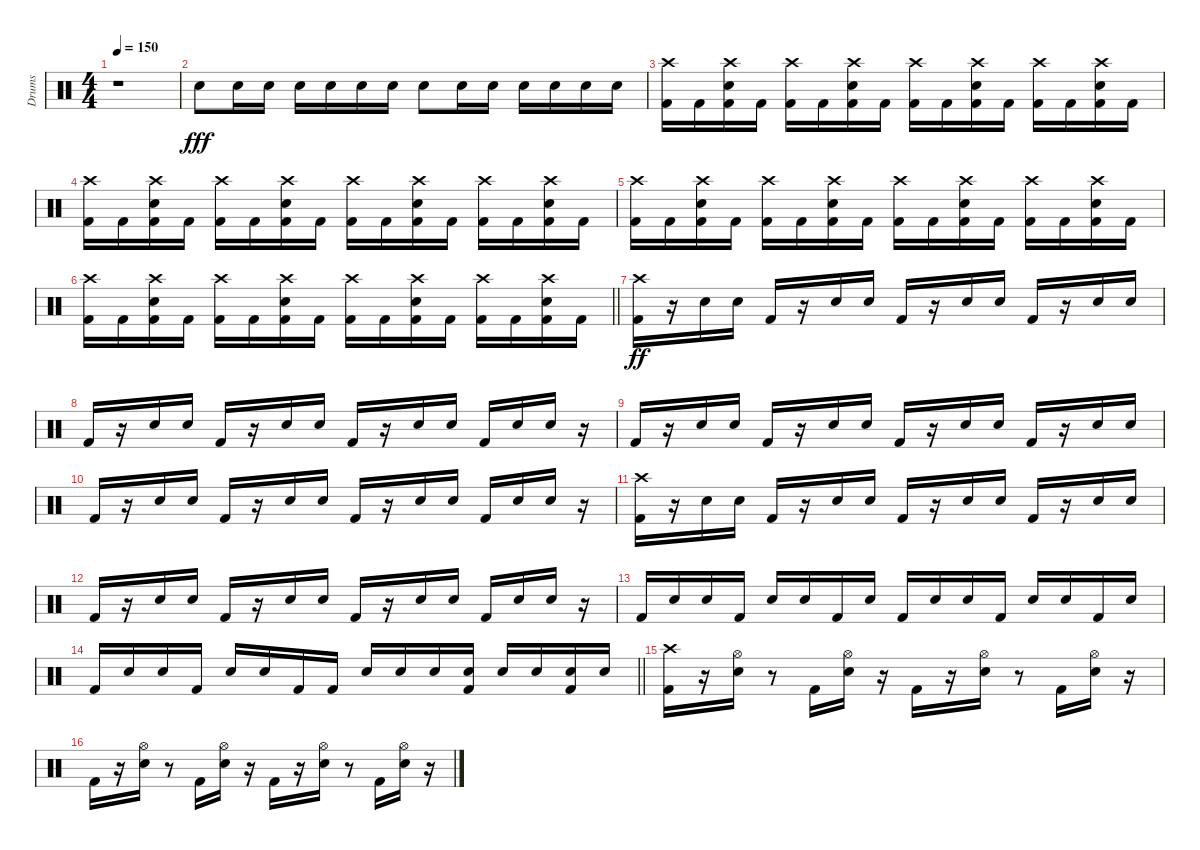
\track ("Drums" "Drums") {instrument percussion}
\staff {score}
\articulation defaults
\ts (4 4)
\tempo 150
\clef neutral
\ks c
r.1{dy fff} |
"Electric Snare (hit)".8 "Electric Snare (hit)".16 "Electric Snare (hit)".16 "Electric Snare (hit)".16 "Electric Snare (hit)".16 "Electric Snare (hit)".16 "Electric Snare (hit)".16 "Electric Snare (hit)".8 "Electric Snare (hit)".16 "Electric Snare (hit)".16 "Electric Snare (hit)".16 "Electric Snare (hit)".16 "Electric Snare (hit)".16 "Electric Snare (hit)".16 |
("Crash high (hit)" "Kick (hit) 2").16 "Kick (hit) 2".16 ("Crash high (hit)" "Electric Snare (hit)" "Kick (hit) 2").16 "Kick (hit) 2".16 ("Crash high (hit)" "Kick (hit) 2").16 "Kick (hit) 2".16 ("Crash high (hit)" "Electric Snare (hit)" "Kick (hit) 2").16 "Kick (hit) 2".16 ("Crash high (hit)" "Kick (hit) 2").16 "Kick (hit) 2".16 ("Crash high (hit)" "Electric Snare (hit)" "Kick (hit) 2").16 "Kick (hit) 2".16 ("Crash high (hit)" "Kick (hit) 2").16 "Kick (hit) 2".16 ("Crash high (hit)" "Electric Snare (hit)" "Kick (hit) 2").16 "Kick (hit) 2".16 |
("Crash high (hit)" "Kick (hit) 2").16 "Kick (hit) 2".16 ("Crash high (hit)" "Electric Snare (hit)" "Kick (hit) 2").16 "Kick (hit) 2".16 ("Crash high (hit)" "Kick (hit) 2").16 "Kick (hit) 2".16 ("Crash high (hit)" "Electric Snare (hit)" "Kick (hit) 2").16 "Kick (hit) 2".16 ("Crash high (hit)" "Kick (hit) 2").16 "Kick (hit) 2".16 ("Crash high (hit)" "Electric Snare (hit)" "Kick (hit) 2").16 "Kick (hit) 2".16 ("Crash high (hit)" "Kick (hit) 2").16 "Kick (hit) 2".16 ("Crash high (hit)" "Electric Snare (hit)" "Kick (hit) 2").16 "Kick (hit) 2".16 |
("Crash high (hit)" "Kick (hit) 2").16 "Kick (hit) 2".16 ("Crash high (hit)" "Electric Snare (hit)" "Kick (hit) 2").16 "Kick (hit) 2".16 ("Crash high (hit)" "Kick (hit) 2").16 "Kick (hit) 2".16 ("Crash high (hit)" "Electric Snare (hit)" "Kick (hit) 2").16 "Kick (hit) 2".16 ("Crash high (hit)" "Kick (hit) 2").16 "Kick (hit) 2".16 ("Crash high (hit)" "Electric Snare (hit)" "Kick (hit) 2").16 "Kick (hit) 2".16 ("Crash high (hit)" "Kick (hit) 2").16 "Kick (hit) 2".16 ("Crash high (hit)" "Electric Snare (hit)" "Kick (hit) 2").16 "Kick (hit) 2".16 |
\barLineRight lightlight
("Crash high (hit)" "Kick (hit) 2").16 "Kick (hit) 2".16 ("Crash high (hit)" "Electric Snare (hit)" "Kick (hit) 2").16 "Kick (hit) 2".16 ("Crash high (hit)" "Kick (hit) 2").16 "Kick (hit) 2".16 ("Crash high (hit)" "Electric Snare (hit)" "Kick (hit) 2").16 "Kick (hit) 2".16 ("Crash high (hit)" "Kick (hit) 2").16 "Kick (hit) 2".16 ("Crash high (hit)" "Electric Snare (hit)" "Kick (hit) 2").16 "Kick (hit) 2".16 ("Crash high (hit)" "Kick (hit) 2").16 "Kick (hit) 2".16 ("Crash high (hit)" "Electric Snare (hit)" "Kick (hit) 2").16 "Kick (hit) 2".16 |
("Crash high (hit)" "Kick (hit) 2").16{dy ff} r.16 "Snare (hit) 2".16 "Snare (hit) 2".16 "Kick (hit) 2".16 r.16 "Snare (hit) 2".16 "Snare (hit) 2".16 "Kick (hit) 2".16 r.16 "Snare (hit) 2".16 "Snare (hit) 2".16 "Kick (hit) 2".16 r.16 "Snare (hit) 2".16 "Snare (hit) 2".16 |
"Kick (hit) 2".16 r.16 "Snare (hit) 2".16 "Snare (hit) 2".16 "Kick (hit) 2".16 r.16 "Snare (hit) 2".16 "Snare (hit) 2".16 "Kick (hit) 2".16 r.16 "Snare (hit) 2".16 "Snare (hit) 2".16 "Kick (hit) 2".16 "Snare (hit) 2".16 "Snare (hit) 2".16 r.16 |
"Kick (hit) 2".16 r.16 "Snare (hit) 2".16 "Snare (hit) 2".16 "Kick (hit) 2".16 r.16 "Snare (hit) 2".16 "Snare (hit) 2".16 "Kick (hit) 2".16 r.16 "Snare (hit) 2".16 "Snare (hit) 2".16 "Kick (hit) 2".16 r.16 "Snare (hit) 2".16 "Snare (hit) 2".16 |
"Kick (hit) 2".16 r.16 "Snare (hit) 2".16 "Snare (hit) 2".16 "Kick (hit) 2".16 r.16 "Snare (hit) 2".16 "Snare (hit) 2".16 "Kick (hit) 2".16 r.16 "Snare (hit) 2".16 "Snare (hit) 2".16 "Kick (hit) 2".16 "Snare (hit) 2".16 "Snare (hit) 2".16 r.16 |
("Crash high (hit)" "Kick (hit) 2").16 r.16 "Snare (hit) 2".16 "Snare (hit) 2".16 "Kick (hit) 2".16 r.16 "Snare (hit) 2".16 "Snare (hit) 2".16 "Kick (hit) 2".16 r.16 "Snare (hit) 2".16 "Snare (hit) 2".16 "Kick (hit) 2".16 r.16 "Snare (hit) 2".16 "Snare (hit) 2".16 |
"Kick (hit) 2".16 r.16 "Snare (hit) 2".16 "Snare (hit) 2".16 "Kick (hit) 2".16 r.16 "Snare (hit) 2".16 "Snare (hit) 2".16 "Kick (hit) 2".16 r.16 "Snare (hit) 2".16 "Snare (hit) 2".16 "Kick (hit) 2".16 "Snare (hit) 2".16 "Snare (hit) 2".16 r.16 |
"Kick (hit) 2".16 "Snare (hit) 2".16 "Snare (hit) 2".16 "Kick (hit) 2".16 "Snare (hit) 2".16 "Snare (hit) 2".16 "Kick (hit) 2".16 "Snare (hit) 2".16 "Kick (hit) 2".16 "Snare (hit) 2".16 "Snare (hit) 2".16 "Kick (hit) 2".16 "Snare (hit) 2".16 "Snare (hit) 2".16 "Kick (hit) 2".16 "Snare (hit) 2".16 |
\barLineRight lightlight "Kick (hit) 2".16 "Snare (hit) 2".16 "Snare (hit) 2".16 "Kick (hit) 2".16 "Snare (hit) 2".16 "Snare (hit) 2".16 "Kick (hit) 2".16 "Kick (hit) 2".16 "Snare (hit) 2".16 "Snare (hit) 2".16 "Snare (hit) 2".16
("Snare (hit) 2" "Kick (hit) 2").16 "Snare (hit) 2".16 "Snare (hit) 2".16 ("Snare (hit) 2" "Kick (hit) 2").16 "Snare (hit) 2".16 |
("Crash high (hit)" "Kick (hit) 2").16 r.16 ("Hi-Hat (open)" "Snare (hit) 2").16 r.8 "Kick (hit) 2".16 ("Hi-Hat (open)" "Snare (hit) 2").16 r.16 "Kick (hit) 2".16 r.16 ("Hi-Hat (open)" "Snare (hit) 2").16 r.8 "Kick (hit) 2".16 ("Hi-Hat (open)" "Snare (hit) 2").16 r.16 |
"Kick (hit) 2".16 r.16 ("Hi-Hat (open)" "Snare (hit) 2").16 r.8 "Kick (hit) 2".16 ("Hi-Hat (open)" "Snare (hit) 2").16 r.16 "Kick (hit) 2".16 r.16 ("Hi-Hat (open)" "Snare (hit) 2").16 r.8 "Kick (hit) 2".16 ("Hi-Hat (open)" "Snare (hit) 2").16 r.16
